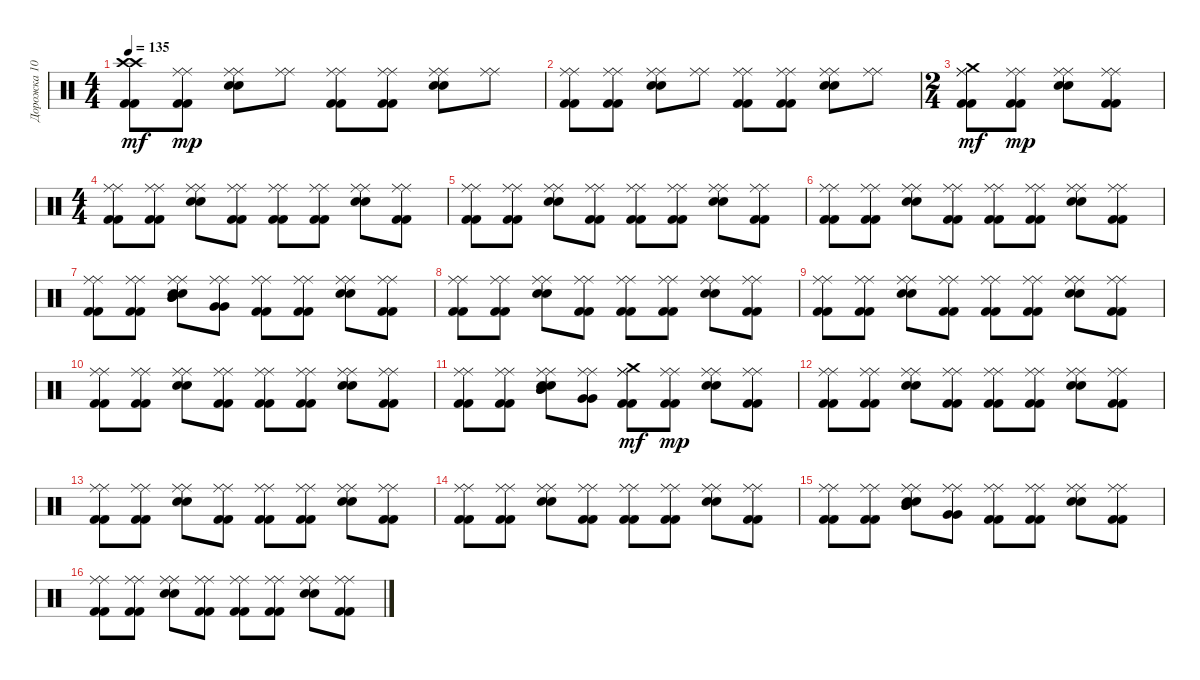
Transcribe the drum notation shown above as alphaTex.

\track ("Дорожка 10" "Дорожка 10") {instrument percussion}
\staff {score}
\articulation defaults
\ts (4 4)
\tempo 135
\clef neutral
\ks c
("Kick (hit) 2" "Crash high (hit)" "Kick (hit) 2" "Crash high (hit)").8{dy mf} ("Kick (hit) 2" "Ride (middle)" "Kick (hit) 2" "Ride (middle)").8{dy mp} ("Snare (hit) 2" "Ride (middle)" "Snare (hit) 2" "Ride (middle)").8 ("Ride (middle)" "Ride (middle)").8 ("Kick (hit) 2" "Ride (middle)" "Kick (hit) 2" "Ride (middle)").8 ("Kick (hit) 2" "Ride (middle)" "Kick (hit) 2" "Ride (middle)").8 ("Snare (hit) 2" "Ride (middle)" "Snare (hit) 2" "Ride (middle)").8 ("Ride (middle)" "Ride (middle)").8 |
("Kick (hit) 2" "Ride (middle)" "Kick (hit) 2" "Ride (middle)").8 ("Kick (hit) 2" "Ride (middle)" "Kick (hit) 2" "Ride (middle)").8 ("Snare (hit) 2" "Ride (middle)" "Snare (hit) 2" "Ride (middle)").8 ("Ride (middle)" "Ride (middle)").8 ("Kick (hit) 2" "Ride (middle)" "Kick (hit) 2" "Ride (middle)").8 ("Kick (hit) 2" "Ride (middle)" "Kick (hit) 2" "Ride (middle)").8 ("Snare (hit) 2" "Ride (middle)" "Snare (hit) 2" "Ride (middle)").8 ("Ride (middle)" "Ride (middle)").8 |
\ts (2 4)
("Kick (hit) 2" "Ride (middle)" "Kick (hit) 2" "Ride (middle)" "Crash medium (hit)").8{dy mf} ("Kick (hit) 2" "Ride (middle)" "Kick (hit) 2" "Ride (middle)").8{dy mp} ("Snare (hit) 2" "Ride (middle)" "Snare (hit) 2" "Ride (middle)").8 ("Kick (hit) 2" "Ride (middle)" "Kick (hit) 2" "Ride (middle)").8 |
\ts (4 4)
("Kick (hit) 2" "Ride (middle)" "Kick (hit) 2" "Ride (middle)").8 ("Kick (hit) 2" "Ride (middle)" "Kick (hit) 2" "Ride (middle)").8 ("Snare (hit) 2" "Ride (middle)" "Snare (hit) 2" "Ride (middle)").8 ("Kick (hit) 2" "Ride (middle)" "Kick (hit) 2" "Ride (middle)").8 ("Kick (hit) 2" "Ride (middle)" "Kick (hit) 2" "Ride (middle)").8 ("Kick (hit) 2" "Ride (middle)" "Kick (hit) 2" "Ride (middle)").8 ("Snare (hit) 2" "Ride (middle)" "Snare (hit) 2" "Ride (middle)").8 ("Kick (hit) 2" "Ride (middle)" "Kick (hit) 2" "Ride (middle)").8 |
("Kick (hit) 2" "Ride (middle)" "Kick (hit) 2" "Ride (middle)").8 ("Kick (hit) 2" "Ride (middle)" "Kick (hit) 2" "Ride (middle)").8 ("Snare (hit) 2" "Ride (middle)" "Snare (hit) 2" "Ride (middle)").8 ("Kick (hit) 2" "Ride (middle)" "Kick (hit) 2" "Ride (middle)").8 ("Kick (hit) 2" "Ride (middle)" "Kick (hit) 2" "Ride (middle)").8 ("Kick (hit) 2" "Ride (middle)" "Kick (hit) 2" "Ride (middle)").8 ("Snare (hit) 2" "Ride (middle)" "Snare (hit) 2" "Ride (middle)").8 ("Kick (hit) 2" "Ride (middle)" "Kick (hit) 2" "Ride (middle)").8 |
("Kick (hit) 2" "Ride (middle)" "Kick (hit) 2" "Ride (middle)").8 ("Kick (hit) 2" "Ride (middle)" "Kick (hit) 2" "Ride (middle)").8 ("Snare (hit) 2" "Ride (middle)" "Snare (hit) 2" "Ride (middle)").8 ("Kick (hit) 2" "Ride (middle)" "Kick (hit) 2" "Ride (middle)").8 ("Kick (hit) 2" "Ride (middle)" "Kick (hit) 2" "Ride (middle)").8 ("Kick (hit) 2" "Ride (middle)" "Kick (hit) 2" "Ride (middle)").8 ("Snare (hit) 2" "Ride (middle)" "Snare (hit) 2" "Ride (middle)").8 ("Kick (hit) 2" "Ride (middle)" "Kick (hit) 2" "Ride (middle)").8 |
("Kick (hit) 2" "Ride (middle)" "Kick (hit) 2" "Ride (middle)").8 ("Kick (hit) 2" "Ride (middle)" "Kick (hit) 2" "Ride (middle)").8 ("Snare (hit) 2" "Mid Tom (hit)" "Ride (middle)" "Snare (hit) 2" "Mid Tom (hit)" "Ride (middle)").8 ("Very Low Tom (hit)" "Ride (middle)" "Very Low Tom (hit)" "Ride (middle)").8 ("Kick (hit) 2" "Ride (middle)" "Kick (hit) 2" "Ride (middle)").8 ("Kick (hit) 2" "Ride (middle)" "Kick (hit) 2" "Ride (middle)").8 ("Snare (hit) 2" "Ride (middle)" "Snare (hit) 2" "Ride (middle)").8 ("Kick (hit) 2" "Ride (middle)" "Kick (hit) 2" "Ride (middle)").8 |
("Kick (hit) 2" "Ride (middle)" "Kick (hit) 2" "Ride (middle)").8 ("Kick (hit) 2" "Ride (middle)" "Kick (hit) 2" "Ride (middle)").8 ("Snare (hit) 2" "Ride (middle)" "Snare (hit) 2" "Ride (middle)").8 ("Kick (hit) 2" "Ride (middle)" "Kick (hit) 2" "Ride (middle)").8 ("Kick (hit) 2" "Ride (middle)" "Kick (hit) 2" "Ride (middle)").8 ("Kick (hit) 2" "Ride (middle)" "Kick (hit) 2" "Ride (middle)").8 ("Snare (hit) 2" "Ride (middle)" "Snare (hit) 2" "Ride (middle)").8 ("Kick (hit) 2" "Ride (middle)" "Kick (hit) 2" "Ride (middle)").8 |
("Kick (hit) 2" "Ride (middle)" "Kick (hit) 2" "Ride (middle)").8 ("Kick (hit) 2" "Ride (middle)" "Kick (hit) 2" "Ride (middle)").8 ("Snare (hit) 2" "Ride (middle)" "Snare (hit) 2" "Ride (middle)").8 ("Kick (hit) 2" "Ride (middle)" "Kick (hit) 2" "Ride (middle)").8 ("Kick (hit) 2" "Ride (middle)" "Kick (hit) 2" "Ride (middle)").8 ("Kick (hit) 2" "Ride (middle)" "Kick (hit) 2" "Ride (middle)").8 ("Snare (hit) 2" "Ride (middle)" "Snare (hit) 2" "Ride (middle)").8 ("Kick (hit) 2" "Ride (middle)" "Kick (hit) 2" "Ride (middle)").8 |
("Kick (hit) 2" "Ride (middle)" "Kick (hit) 2" "Ride (middle)").8 ("Kick (hit) 2" "Ride (middle)" "Kick (hit) 2" "Ride (middle)").8 ("Snare (hit) 2" "Ride (middle)" "Snare (hit) 2" "Ride (middle)").8 ("Kick (hit) 2" "Ride (middle)" "Kick (hit) 2" "Ride (middle)").8 ("Kick (hit) 2" "Ride (middle)" "Kick (hit) 2" "Ride (middle)").8 ("Kick (hit) 2" "Ride (middle)" "Kick (hit) 2" "Ride (middle)").8 ("Snare (hit) 2" "Ride (middle)" "Snare (hit) 2" "Ride (middle)").8 ("Kick (hit) 2" "Ride (middle)" "Kick (hit) 2" "Ride (middle)").8 |
("Kick (hit) 2" "Ride (middle)" "Kick (hit) 2" "Ride (middle)").8 ("Kick (hit) 2" "Ride (middle)" "Kick (hit) 2" "Ride (middle)").8 ("Snare (hit) 2" "Mid Tom (hit)" "Ride (middle)" "Snare (hit) 2" "Mid Tom (hit)" "Ride (middle)").8 ("Very Low Tom (hit)" "Ride (middle)" "Very Low Tom (hit)" "Ride (middle)").8 ("Kick (hit) 2" "Ride (middle)" "Kick (hit) 2" "Ride (middle)" "Crash medium (hit)").8{dy mf} ("Kick (hit) 2" "Ride (middle)" "Kick (hit) 2" "Ride (middle)").8{dy mp} ("Snare (hit) 2" "Ride (middle)" "Snare (hit) 2" "Ride (middle)").8 ("Kick (hit) 2" "Ride (middle)" "Kick (hit) 2" "Ride (middle)").8 |
("Kick (hit) 2" "Ride (middle)" "Kick (hit) 2" "Ride (middle)").8 ("Kick (hit) 2" "Ride (middle)" "Kick (hit) 2" "Ride (middle)").8 ("Snare (hit) 2" "Ride (middle)" "Snare (hit) 2" "Ride (middle)").8 ("Kick (hit) 2" "Ride (middle)" "Kick (hit) 2" "Ride (middle)").8 ("Kick (hit) 2" "Ride (middle)" "Kick (hit) 2" "Ride (middle)").8 ("Kick (hit) 2" "Ride (middle)" "Kick (hit) 2" "Ride (middle)").8 ("Snare (hit) 2" "Ride (middle)" "Snare (hit) 2" "Ride (middle)").8 ("Kick (hit) 2" "Ride (middle)" "Kick (hit) 2" "Ride (middle)").8 |
("Kick (hit) 2" "Ride (middle)" "Kick (hit) 2" "Ride (middle)").8 ("Kick (hit) 2" "Ride (middle)" "Kick (hit) 2" "Ride (middle)").8 ("Snare (hit) 2" "Ride (middle)" "Snare (hit) 2" "Ride (middle)").8 ("Kick (hit) 2" "Ride (middle)" "Kick (hit) 2" "Ride (middle)").8 ("Kick (hit) 2" "Ride (middle)" "Kick (hit) 2" "Ride (middle)").8 ("Kick (hit) 2" "Ride (middle)" "Kick (hit) 2" "Ride (middle)").8 ("Snare (hit) 2" "Ride (middle)" "Snare (hit) 2" "Ride (middle)").8 ("Kick (hit) 2" "Ride (middle)" "Kick (hit) 2" "Ride (middle)").8 |
("Kick (hit) 2" "Ride (middle)" "Kick (hit) 2" "Ride (middle)").8 ("Kick (hit) 2" "Ride (middle)" "Kick (hit) 2" "Ride (middle)").8 ("Snare (hit) 2" "Ride (middle)" "Snare (hit) 2" "Ride (middle)").8 ("Kick (hit) 2" "Ride (middle)" "Kick (hit) 2" "Ride (middle)").8 ("Kick (hit) 2" "Ride (middle)" "Kick (hit) 2" "Ride (middle)").8 ("Kick (hit) 2" "Ride (middle)" "Kick (hit) 2" "Ride (middle)").8 ("Snare (hit) 2" "Ride (middle)" "Snare (hit) 2" "Ride (middle)").8 ("Kick (hit) 2" "Ride (middle)" "Kick (hit) 2" "Ride (middle)").8 |
("Kick (hit) 2" "Ride (middle)" "Kick (hit) 2" "Ride (middle)").8 ("Kick (hit) 2" "Ride (middle)" "Kick (hit) 2" "Ride (middle)").8 ("Snare (hit) 2" "Mid Tom (hit)" "Ride (middle)" "Snare (hit) 2" "Mid Tom (hit)" "Ride (middle)").8 ("Very Low Tom (hit)" "Ride (middle)" "Very Low Tom (hit)" "Ride (middle)").8 ("Kick (hit) 2" "Ride (middle)" "Kick (hit) 2" "Ride (middle)").8 ("Kick (hit) 2" "Ride (middle)" "Kick (hit) 2" "Ride (middle)").8 ("Snare (hit) 2" "Ride (middle)" "Snare (hit) 2" "Ride (middle)").8 ("Kick (hit) 2" "Ride (middle)" "Kick (hit) 2" "Ride (middle)").8 |
("Kick (hit) 2" "Ride (middle)" "Kick (hit) 2" "Ride (middle)").8 ("Kick (hit) 2" "Ride (middle)" "Kick (hit) 2" "Ride (middle)").8 ("Snare (hit) 2" "Ride (middle)" "Snare (hit) 2" "Ride (middle)").8 ("Kick (hit) 2" "Ride (middle)" "Kick (hit) 2" "Ride (middle)").8 ("Kick (hit) 2" "Ride (middle)" "Kick (hit) 2" "Ride (middle)").8 ("Kick (hit) 2" "Ride (middle)" "Kick (hit) 2" "Ride (middle)").8 ("Snare (hit) 2" "Ride (middle)" "Snare (hit) 2" "Ride (middle)").8 ("Kick (hit) 2" "Ride (middle)" "Kick (hit) 2" "Ride (middle)").8
